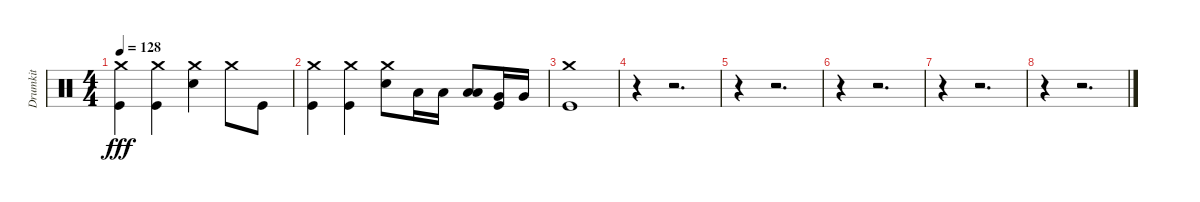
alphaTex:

\track ("Drumkit" "Drumkit") {instrument percussion}
\staff {score}
\articulation defaults
\ts (4 4)
\tempo 128
\clef neutral
\ks c
("Crash medium (hit)" "Kick (hit)").4{dy fff} ("Crash medium (hit)" "Kick (hit)").4 ("Crash medium (hit)" "Snare (hit) 2").4 "Crash medium (hit)".8 "Kick (hit)".8 |
("Crash medium (hit)" "Kick (hit)").4 ("Crash medium (hit)" "Kick (hit)").4 ("Crash medium (hit)" "Snare (hit) 2").8 "Low Tom (hit)".16 "Low Tom (hit)".16 ("Low Tom (hit)" "Low Floor Tom (hit)").8 ("Very Low Tom (hit)" "Kick (hit)").16 "Very Low Tom (hit)".16 |
("Kick (hit)" "Crash medium (hit)").1 |
r.4 r.2{d} |
r.4 r.2{d} |
r.4 r.2{d} |
r.4 r.2{d} |
r.4 r.2{d}
